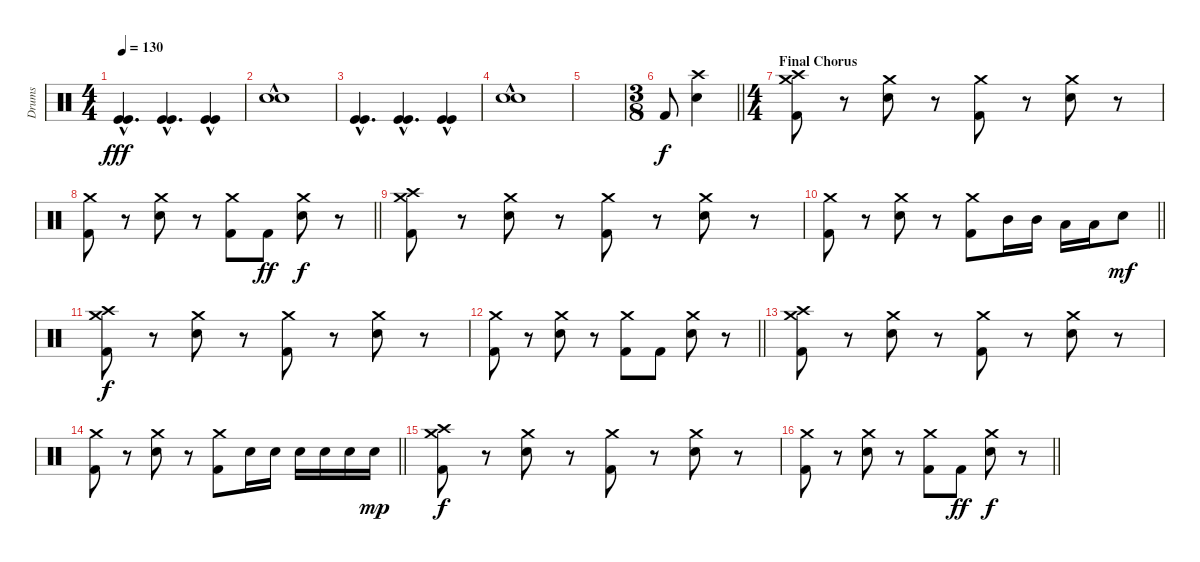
\track ("Drums" "Drums") {instrument percussion}
\staff {score}
\articulation defaults
\ts (4 4)
\tempo 130
\clef neutral
\ks c
("Kick (hit)"{hac} "Kick (hit)"{hac}).4{d dy fff} ("Kick (hit)"{hac} "Kick (hit)"{hac}).4{d} ("Kick (hit)"{hac} "Kick (hit)"{hac}).4 |
("Electric Snare (hit)"{hac} "Electric Snare (hit)"{hac}).1 |
("Kick (hit)"{hac} "Kick (hit)"{hac}).4{d} ("Kick (hit)"{hac} "Kick (hit)"{hac}).4{d} ("Kick (hit)"{hac} "Kick (hit)"{hac}).4 |
("Electric Snare (hit)"{hac} "Electric Snare (hit)"{hac}).1 |
|
\ts (3 8)
\barLineRight lightlight "Kick (hit) 2".8{dy f}
("Crash high (hit)" "Electric Snare (hit)").4 |
\ts (4 4)
\section ("" "Final Chorus")
("Crash medium (hit)" "Crash high (hit)" "Kick (hit) 2").8 r.8 ("Crash medium (hit)" "Electric Snare (hit)").8 r.8 ("Crash medium (hit)" "Kick (hit) 2").8 r.8 ("Crash medium (hit)" "Electric Snare (hit)").8 r.8 |
\barLineRight lightlight
("Crash medium (hit)" "Kick (hit) 2").8 r.8 ("Crash medium (hit)" "Electric Snare (hit)").8 r.8 ("Crash medium (hit)" "Kick (hit) 2").8 "Kick (hit) 2".8{dy ff} ("Crash medium (hit)" "Electric Snare (hit)").8{dy f} r.8 |
("Crash medium (hit)" "Crash high (hit)" "Kick (hit) 2").8 r.8 ("Crash medium (hit)" "Electric Snare (hit)").8 r.8 ("Crash medium (hit)" "Kick (hit) 2").8 r.8 ("Crash medium (hit)" "Electric Snare (hit)").8 r.8 |
\barLineRight lightlight
("Crash medium (hit)" "Kick (hit) 2").8 r.8 ("Crash medium (hit)" "Electric Snare (hit)").8 r.8 ("Crash medium (hit)" "Kick (hit) 2").8 "Mid Tom (hit)".16 "Mid Tom (hit)".16 "Low Tom (hit)".16 "Low Tom (hit)".16 "Electric Snare (hit)".8{dy mf} |
("Crash medium (hit)" "Crash high (hit)" "Kick (hit) 2").8{dy f} r.8 ("Crash medium (hit)" "Electric Snare (hit)").8 r.8 ("Crash medium (hit)" "Kick (hit) 2").8 r.8 ("Crash medium (hit)" "Electric Snare (hit)").8 r.8 |
\barLineRight lightlight
("Crash medium (hit)" "Kick (hit) 2").8 r.8 ("Crash medium (hit)" "Electric Snare (hit)").8 r.8 ("Crash medium (hit)" "Kick (hit) 2").8 "Kick (hit) 2".8 ("Crash medium (hit)" "Electric Snare (hit)").8 r.8 |
("Crash medium (hit)" "Crash high (hit)" "Kick (hit) 2").8 r.8 ("Crash medium (hit)" "Electric Snare (hit)").8 r.8 ("Crash medium (hit)" "Kick (hit) 2").8 r.8 ("Crash medium (hit)" "Electric Snare (hit)").8 r.8 |
\barLineRight lightlight
("Crash medium (hit)" "Kick (hit) 2").8 r.8 ("Crash medium (hit)" "Electric Snare (hit)").8 r.8 ("Crash medium (hit)" "Kick (hit) 2").8 "Electric Snare (hit)".16 "Electric Snare (hit)".16 "Electric Snare (hit)".16 "Electric Snare (hit)".16 "Electric Snare (hit)".16 "Electric Snare (hit)".16{dy mp} |
("Crash medium (hit)" "Crash high (hit)" "Kick (hit) 2").8{dy f} r.8 ("Crash medium (hit)" "Electric Snare (hit)").8 r.8 ("Crash medium (hit)" "Kick (hit) 2").8 r.8 ("Crash medium (hit)" "Electric Snare (hit)").8 r.8 |
\barLineRight lightlight
("Crash medium (hit)" "Kick (hit) 2").8 r.8 ("Crash medium (hit)" "Electric Snare (hit)").8 r.8 ("Crash medium (hit)" "Kick (hit) 2").8 "Kick (hit) 2".8{dy ff} ("Crash medium (hit)" "Electric Snare (hit)").8{dy f} r.8
